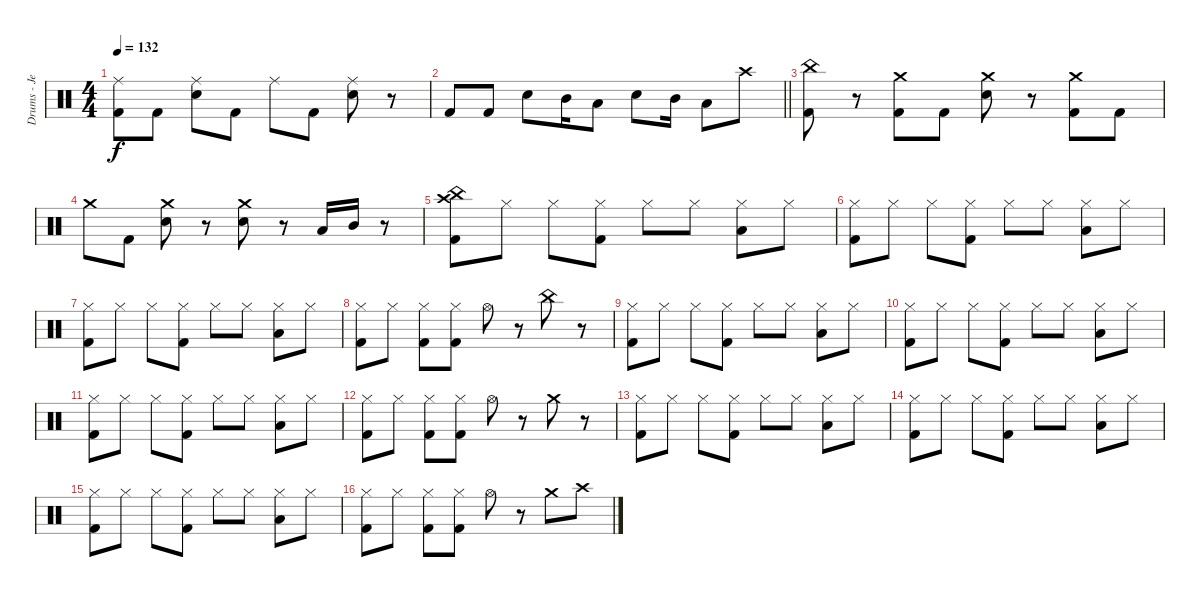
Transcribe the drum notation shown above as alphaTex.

\track ("Drums - Jeroen" "Drums - Je") {instrument percussion}
\staff {score}
\articulation defaults
\ts (4 4)
\tempo 132
\clef neutral
\ks c
("Ride (middle)" "Kick (hit) 2").8{dy f} "Kick (hit) 2".8 ("Ride (middle)" "Electric Snare (hit)").8 "Kick (hit) 2".8 "Ride (middle)".8 "Kick (hit) 2".8 ("Ride (middle)" "Electric Snare (hit)").8 r.8 |
\barLineRight lightlight "Kick (hit) 2".8 "Kick (hit) 2".8 "Electric Snare (hit)".8 "Mid Tom (hit)".16 "Low Tom (hit)".8 "Electric Snare (hit)".8 "Mid Tom (hit)".16 "Low Floor Tom (hit)".8 "Crash high (hit)".8
|
("China (hit)" "Kick (hit) 2").8 r.8 ("Crash medium (hit)" "Kick (hit) 2").8 "Kick (hit) 2".8 ("Crash medium (hit)" "Electric Snare (hit)").8 r.8 ("Crash medium (hit)" "Kick (hit) 2").8 "Kick (hit) 2".8 |
"Crash medium (hit)".8 "Kick (hit) 2".8 ("Crash medium (hit)" "Electric Snare (hit)").8 r.8 ("Crash medium (hit)" "Electric Snare (hit)").8 r.8 "Low Tom (hit)".16 "Mid Tom (hit)".16 r.8 |
("China (hit)" "Crash high (hit)" "Kick (hit) 2").8 "Hi-Hat (closed)".8 "Hi-Hat (closed)".8 ("Hi-Hat (closed)" "Kick (hit) 2").8 "Hi-Hat (closed)".8 "Hi-Hat (closed)".8 ("Low Floor Tom (hit)" "Hi-Hat (closed)").8 "Hi-Hat (closed)".8 |
("Hi-Hat (closed)" "Kick (hit) 2").8 "Hi-Hat (closed)".8 "Hi-Hat (closed)".8 ("Hi-Hat (closed)" "Kick (hit) 2").8 "Hi-Hat (closed)".8 "Hi-Hat (closed)".8 ("Low Floor Tom (hit)" "Hi-Hat (closed)").8 "Hi-Hat (closed)".8 |
("Hi-Hat (closed)" "Kick (hit) 2").8 "Hi-Hat (closed)".8 "Hi-Hat (closed)".8 ("Hi-Hat (closed)" "Kick (hit) 2").8 "Hi-Hat (closed)".8 "Hi-Hat (closed)".8 ("Low Floor Tom (hit)" "Hi-Hat (closed)").8 "Hi-Hat (closed)".8 |
("Hi-Hat (closed)" "Kick (hit) 2").8 "Hi-Hat (closed)".8 ("Hi-Hat (closed)" "Kick (hit) 2").8 ("Hi-Hat (closed)" "Kick (hit) 2").8 "Hi-Hat (open)".8 r.8 "China (hit)".8 r.8 |
("Hi-Hat (closed)" "Kick (hit) 2").8 "Hi-Hat (closed)".8 "Hi-Hat (closed)".8 ("Hi-Hat (closed)" "Kick (hit) 2").8 "Hi-Hat (closed)".8 "Hi-Hat (closed)".8 ("Low Floor Tom (hit)" "Hi-Hat (closed)").8 "Hi-Hat (closed)".8 |
("Hi-Hat (closed)" "Kick (hit) 2").8 "Hi-Hat (closed)".8 "Hi-Hat (closed)".8 ("Hi-Hat (closed)" "Kick (hit) 2").8 "Hi-Hat (closed)".8 "Hi-Hat (closed)".8 ("Low Floor Tom (hit)" "Hi-Hat (closed)").8 "Hi-Hat (closed)".8 |
("Hi-Hat (closed)" "Kick (hit) 2").8 "Hi-Hat (closed)".8 "Hi-Hat (closed)".8 ("Hi-Hat (closed)" "Kick (hit) 2").8 "Hi-Hat (closed)".8 "Hi-Hat (closed)".8 ("Low Floor Tom (hit)" "Hi-Hat (closed)").8 "Hi-Hat (closed)".8 |
("Hi-Hat (closed)" "Kick (hit) 2").8 "Hi-Hat (closed)".8 ("Hi-Hat (closed)" "Kick (hit) 2").8 ("Hi-Hat (closed)" "Kick (hit) 2").8 "Hi-Hat (open)".8 r.8 "Crash medium (hit)".8 r.8 |
("Hi-Hat (closed)" "Kick (hit) 2").8 "Hi-Hat (closed)".8 "Hi-Hat (closed)".8 ("Hi-Hat (closed)" "Kick (hit) 2").8 "Hi-Hat (closed)".8 "Hi-Hat (closed)".8 ("Low Floor Tom (hit)" "Hi-Hat (closed)").8 "Hi-Hat (closed)".8 |
("Hi-Hat (closed)" "Kick (hit) 2").8 "Hi-Hat (closed)".8 "Hi-Hat (closed)".8 ("Hi-Hat (closed)" "Kick (hit) 2").8 "Hi-Hat (closed)".8 "Hi-Hat (closed)".8 ("Low Floor Tom (hit)" "Hi-Hat (closed)").8 "Hi-Hat (closed)".8 |
("Hi-Hat (closed)" "Kick (hit) 2").8 "Hi-Hat (closed)".8 "Hi-Hat (closed)".8 ("Hi-Hat (closed)" "Kick (hit) 2").8 "Hi-Hat (closed)".8 "Hi-Hat (closed)".8 ("Low Floor Tom (hit)" "Hi-Hat (closed)").8 "Hi-Hat (closed)".8 |
("Hi-Hat (closed)" "Kick (hit) 2").8 "Hi-Hat (closed)".8 ("Hi-Hat (closed)" "Kick (hit) 2").8 ("Hi-Hat (closed)" "Kick (hit) 2").8 "Hi-Hat (open)".8 r.8 "Crash medium (hit)".8 "Crash high (hit)".8
